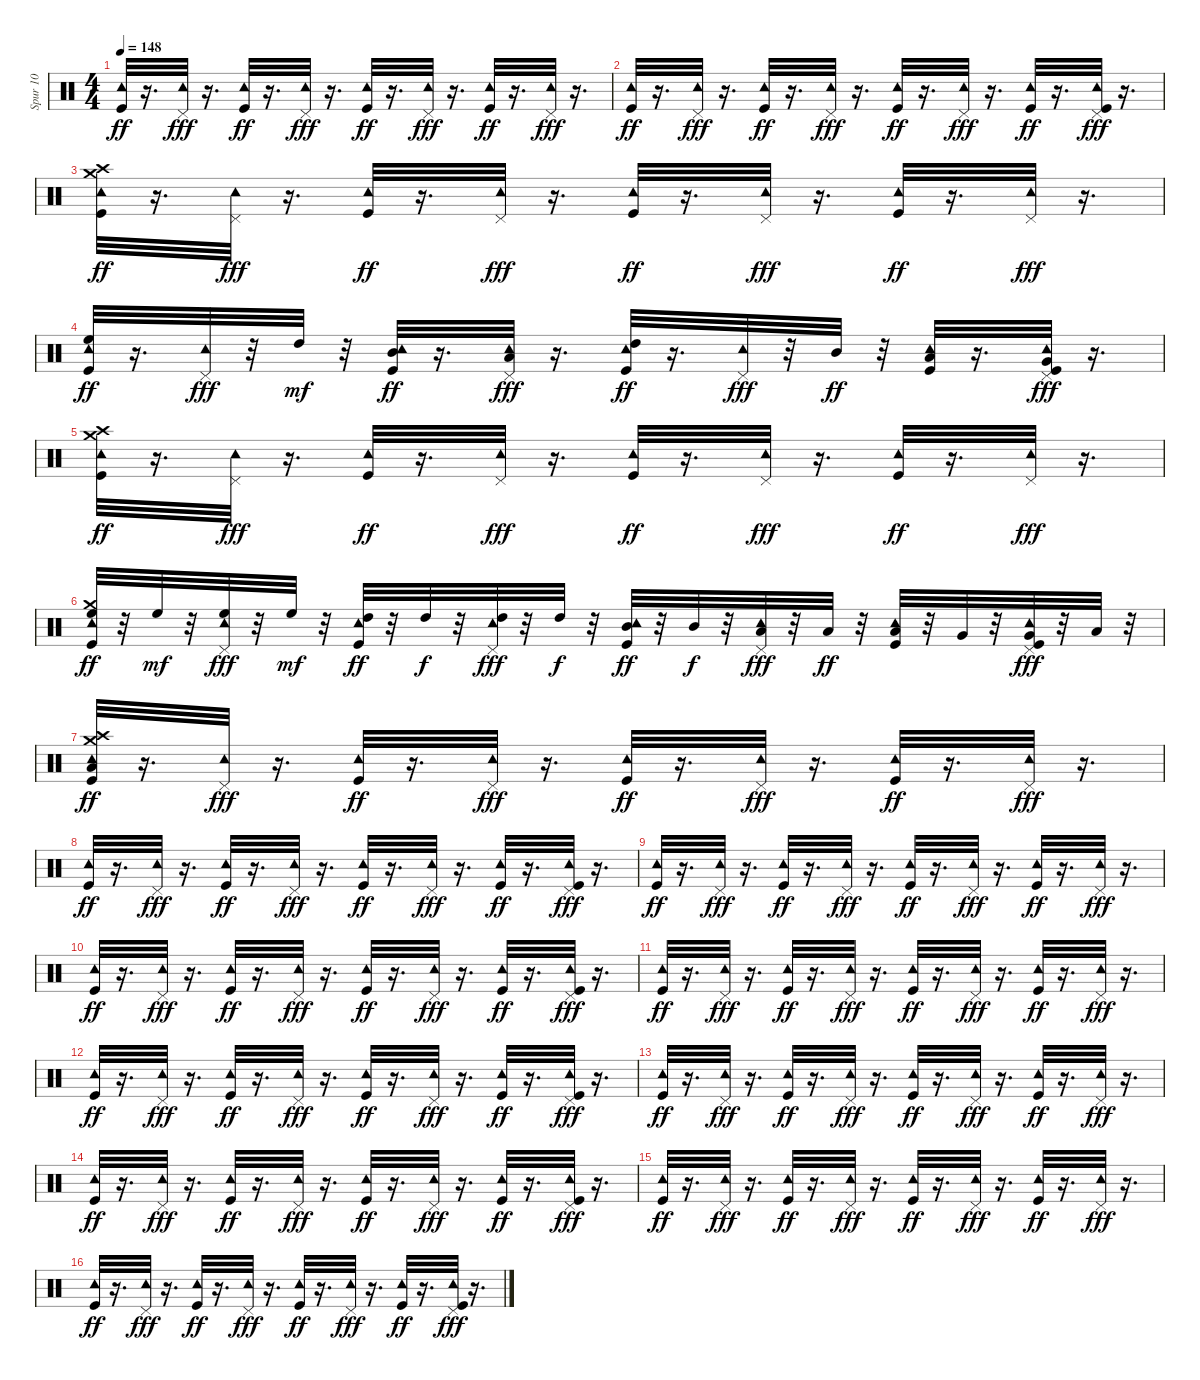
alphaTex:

\track ("Spur 10" "Spur 10") {instrument percussion}
\staff {score}
\articulation defaults
\ts (4 4)
\tempo 148
\clef neutral
\ks c
("Kick (hit)" "Tambourine (hit)").32{dy ff} r.16{d} ("Tambourine (hit)" "Pedal Hi-Hat (hit)").32{dy fff} r.16{d} ("Kick (hit)" "Tambourine (hit)").32{dy ff} r.16{d} ("Tambourine (hit)" "Pedal Hi-Hat (hit)").32{dy fff} r.16{d} ("Kick (hit)" "Tambourine (hit)").32{dy ff} r.16{d} ("Tambourine (hit)" "Pedal Hi-Hat (hit)").32{dy fff} r.16{d} ("Kick (hit)" "Tambourine (hit)").32{dy ff} r.16{d} ("Tambourine (hit)" "Pedal Hi-Hat (hit)").32{dy fff} r.16{d} |
("Kick (hit)" "Tambourine (hit)").32{dy ff} r.16{d} ("Tambourine (hit)" "Pedal Hi-Hat (hit)").32{dy fff} r.16{d} ("Kick (hit)" "Tambourine (hit)").32{dy ff} r.16{d} ("Tambourine (hit)" "Pedal Hi-Hat (hit)").32{dy fff} r.16{d} ("Kick (hit)" "Tambourine (hit)").32{dy ff} r.16{d} ("Tambourine (hit)" "Pedal Hi-Hat (hit)").32{dy fff} r.16{d} ("Kick (hit)" "Tambourine (hit)").32{dy ff} r.16{d} ("Kick (hit)" "Tambourine (hit)" "Pedal Hi-Hat (hit)").32{dy fff} r.16{d} |
("Kick (hit)" "Tambourine (hit)" "Crash high (hit)" "Crash medium (hit)").32{dy ff} r.16{d} ("Tambourine (hit)" "Pedal Hi-Hat (hit)").32{dy fff} r.16{d} ("Kick (hit)" "Tambourine (hit)").32{dy ff} r.16{d} ("Tambourine (hit)" "Pedal Hi-Hat (hit)").32{dy fff} r.16{d} ("Kick (hit)" "Tambourine (hit)").32{dy ff} r.16{d} ("Tambourine (hit)" "Pedal Hi-Hat (hit)").32{dy fff} r.16{d} ("Kick (hit)" "Tambourine (hit)").32{dy ff} r.16{d} ("Tambourine (hit)" "Pedal Hi-Hat (hit)").32{dy fff} r.16{d} |
("Kick (hit)" "High Floor Tom (hit)" "Tambourine (hit)").32{dy ff} r.16{d} ("Tambourine (hit)" "Pedal Hi-Hat (hit)").32{dy fff} r.32 "High Tom (hit)".32{dy mf} r.32 ("Kick (hit)" "Mid Tom (hit)" "Tambourine (hit)").32{dy ff} r.16{d} ("Low Tom (hit)" "Tambourine (hit)" "Pedal Hi-Hat (hit)").32{dy fff} r.16{d} ("Kick (hit)" "High Tom (hit)" "Tambourine (hit)").32{dy ff} r.16{d} ("Tambourine (hit)" "Pedal Hi-Hat (hit)").32{dy fff} r.32 "Mid Tom (hit)".32{dy ff} r.32 ("Kick (hit)" "Low Tom (hit)" "Tambourine (hit)").32 r.16{d} ("Kick (hit)" "Very Low Tom (hit)" "Tambourine (hit)" "Pedal Hi-Hat (hit)").32{dy fff} r.16{d} |
("Kick (hit)" "Tambourine (hit)" "Crash high (hit)" "Crash medium (hit)").32{dy ff} r.16{d} ("Tambourine (hit)" "Pedal Hi-Hat (hit)").32{dy fff} r.16{d} ("Kick (hit)" "Tambourine (hit)").32{dy ff} r.16{d} ("Tambourine (hit)" "Pedal Hi-Hat (hit)").32{dy fff} r.16{d} ("Kick (hit)" "Tambourine (hit)").32{dy ff} r.16{d} ("Tambourine (hit)" "Pedal Hi-Hat (hit)").32{dy fff} r.16{d} ("Kick (hit)" "Tambourine (hit)").32{dy ff} r.16{d} ("Tambourine (hit)" "Pedal Hi-Hat (hit)").32{dy fff} r.16{d} |
("Kick (hit)" "High Floor Tom (hit)" "Tambourine (hit)" "Crash medium (hit)").32{dy ff} r.32 "High Floor Tom (hit)".32{dy mf} r.32 ("High Floor Tom (hit)" "Tambourine (hit)" "Pedal Hi-Hat (hit)").32{dy fff} r.32 "High Floor Tom (hit)".32{dy mf} r.32 ("Kick (hit)" "High Tom (hit)" "Tambourine (hit)").32{dy ff} r.32 "High Tom (hit)".32{dy f} r.32 ("High Tom (hit)" "Tambourine (hit)" "Pedal Hi-Hat (hit)").32{dy fff} r.32 "High Tom (hit)".32{dy f} r.32 ("Kick (hit)" "Mid Tom (hit)" "Tambourine (hit)").32{dy ff} r.32 "Mid Tom (hit)".32{dy f} r.32 ("Low Tom (hit)" "Tambourine (hit)" "Pedal Hi-Hat (hit)").32{dy fff} r.32 "Low Tom (hit)".32{dy ff} r.32 ("Kick (hit)" "Low Tom (hit)" "Tambourine (hit)").32 r.32 "Very Low Tom (hit)".32 r.32 ("Kick (hit)" "Very Low Tom (hit)" "Tambourine (hit)" "Pedal Hi-Hat (hit)").32{dy fff} r.32 "Low Floor Tom (hit)".32 r.32 |
("Kick (hit)" "Low Floor Tom (hit)" "Tambourine (hit)" "Crash high (hit)" "Crash medium (hit)").32{dy ff} r.16{d} ("Tambourine (hit)" "Pedal Hi-Hat (hit)").32{dy fff} r.16{d} ("Kick (hit)" "Tambourine (hit)").32{dy ff} r.16{d} ("Tambourine (hit)" "Pedal Hi-Hat (hit)").32{dy fff} r.16{d} ("Kick (hit)" "Tambourine (hit)").32{dy ff} r.16{d} ("Tambourine (hit)" "Pedal Hi-Hat (hit)").32{dy fff} r.16{d} ("Kick (hit)" "Tambourine (hit)").32{dy ff} r.16{d} ("Tambourine (hit)" "Pedal Hi-Hat (hit)").32{dy fff} r.16{d} |
("Kick (hit)" "Tambourine (hit)").32{dy ff} r.16{d} ("Tambourine (hit)" "Pedal Hi-Hat (hit)").32{dy fff} r.16{d} ("Kick (hit)" "Tambourine (hit)").32{dy ff} r.16{d} ("Tambourine (hit)" "Pedal Hi-Hat (hit)").32{dy fff} r.16{d} ("Kick (hit)" "Tambourine (hit)").32{dy ff} r.16{d} ("Tambourine (hit)" "Pedal Hi-Hat (hit)").32{dy fff} r.16{d} ("Kick (hit)" "Tambourine (hit)").32{dy ff} r.16{d} ("Kick (hit)" "Tambourine (hit)" "Pedal Hi-Hat (hit)").32{dy fff} r.16{d} |
("Kick (hit)" "Tambourine (hit)").32{dy ff} r.16{d} ("Tambourine (hit)" "Pedal Hi-Hat (hit)").32{dy fff} r.16{d} ("Kick (hit)" "Tambourine (hit)").32{dy ff} r.16{d} ("Tambourine (hit)" "Pedal Hi-Hat (hit)").32{dy fff} r.16{d} ("Kick (hit)" "Tambourine (hit)").32{dy ff} r.16{d} ("Tambourine (hit)" "Pedal Hi-Hat (hit)").32{dy fff} r.16{d} ("Kick (hit)" "Tambourine (hit)").32{dy ff} r.16{d} ("Tambourine (hit)" "Pedal Hi-Hat (hit)").32{dy fff} r.16{d} |
("Kick (hit)" "Tambourine (hit)").32{dy ff} r.16{d} ("Tambourine (hit)" "Pedal Hi-Hat (hit)").32{dy fff} r.16{d} ("Kick (hit)" "Tambourine (hit)").32{dy ff} r.16{d} ("Tambourine (hit)" "Pedal Hi-Hat (hit)").32{dy fff} r.16{d} ("Kick (hit)" "Tambourine (hit)").32{dy ff} r.16{d} ("Tambourine (hit)" "Pedal Hi-Hat (hit)").32{dy fff} r.16{d} ("Kick (hit)" "Tambourine (hit)").32{dy ff} r.16{d} ("Kick (hit)" "Tambourine (hit)" "Pedal Hi-Hat (hit)").32{dy fff} r.16{d} |
("Kick (hit)" "Tambourine (hit)").32{dy ff} r.16{d} ("Tambourine (hit)" "Pedal Hi-Hat (hit)").32{dy fff} r.16{d} ("Kick (hit)" "Tambourine (hit)").32{dy ff} r.16{d} ("Tambourine (hit)" "Pedal Hi-Hat (hit)").32{dy fff} r.16{d} ("Kick (hit)" "Tambourine (hit)").32{dy ff} r.16{d} ("Tambourine (hit)" "Pedal Hi-Hat (hit)").32{dy fff} r.16{d} ("Kick (hit)" "Tambourine (hit)").32{dy ff} r.16{d} ("Tambourine (hit)" "Pedal Hi-Hat (hit)").32{dy fff} r.16{d} |
("Kick (hit)" "Tambourine (hit)").32{dy ff} r.16{d} ("Tambourine (hit)" "Pedal Hi-Hat (hit)").32{dy fff} r.16{d} ("Kick (hit)" "Tambourine (hit)").32{dy ff} r.16{d} ("Tambourine (hit)" "Pedal Hi-Hat (hit)").32{dy fff} r.16{d} ("Kick (hit)" "Tambourine (hit)").32{dy ff} r.16{d} ("Tambourine (hit)" "Pedal Hi-Hat (hit)").32{dy fff} r.16{d} ("Kick (hit)" "Tambourine (hit)").32{dy ff} r.16{d} ("Kick (hit)" "Tambourine (hit)" "Pedal Hi-Hat (hit)").32{dy fff} r.16{d} |
("Kick (hit)" "Tambourine (hit)").32{dy ff} r.16{d} ("Tambourine (hit)" "Pedal Hi-Hat (hit)").32{dy fff} r.16{d} ("Kick (hit)" "Tambourine (hit)").32{dy ff} r.16{d} ("Tambourine (hit)" "Pedal Hi-Hat (hit)").32{dy fff} r.16{d} ("Kick (hit)" "Tambourine (hit)").32{dy ff} r.16{d} ("Tambourine (hit)" "Pedal Hi-Hat (hit)").32{dy fff} r.16{d} ("Kick (hit)" "Tambourine (hit)").32{dy ff} r.16{d} ("Tambourine (hit)" "Pedal Hi-Hat (hit)").32{dy fff} r.16{d} |
("Kick (hit)" "Tambourine (hit)").32{dy ff} r.16{d} ("Tambourine (hit)" "Pedal Hi-Hat (hit)").32{dy fff} r.16{d} ("Kick (hit)" "Tambourine (hit)").32{dy ff} r.16{d} ("Tambourine (hit)" "Pedal Hi-Hat (hit)").32{dy fff} r.16{d} ("Kick (hit)" "Tambourine (hit)").32{dy ff} r.16{d} ("Tambourine (hit)" "Pedal Hi-Hat (hit)").32{dy fff} r.16{d} ("Kick (hit)" "Tambourine (hit)").32{dy ff} r.16{d} ("Kick (hit)" "Tambourine (hit)" "Pedal Hi-Hat (hit)").32{dy fff} r.16{d} |
("Kick (hit)" "Tambourine (hit)").32{dy ff} r.16{d} ("Tambourine (hit)" "Pedal Hi-Hat (hit)").32{dy fff} r.16{d} ("Kick (hit)" "Tambourine (hit)").32{dy ff} r.16{d} ("Tambourine (hit)" "Pedal Hi-Hat (hit)").32{dy fff} r.16{d} ("Kick (hit)" "Tambourine (hit)").32{dy ff} r.16{d} ("Tambourine (hit)" "Pedal Hi-Hat (hit)").32{dy fff} r.16{d} ("Kick (hit)" "Tambourine (hit)").32{dy ff} r.16{d} ("Tambourine (hit)" "Pedal Hi-Hat (hit)").32{dy fff} r.16{d} |
("Kick (hit)" "Tambourine (hit)").32{dy ff} r.16{d} ("Tambourine (hit)" "Pedal Hi-Hat (hit)").32{dy fff} r.16{d} ("Kick (hit)" "Tambourine (hit)").32{dy ff} r.16{d} ("Tambourine (hit)" "Pedal Hi-Hat (hit)").32{dy fff} r.16{d} ("Kick (hit)" "Tambourine (hit)").32{dy ff} r.16{d} ("Tambourine (hit)" "Pedal Hi-Hat (hit)").32{dy fff} r.16{d} ("Kick (hit)" "Tambourine (hit)").32{dy ff} r.16{d} ("Kick (hit)" "Tambourine (hit)" "Pedal Hi-Hat (hit)").32{dy fff} r.16{d}
